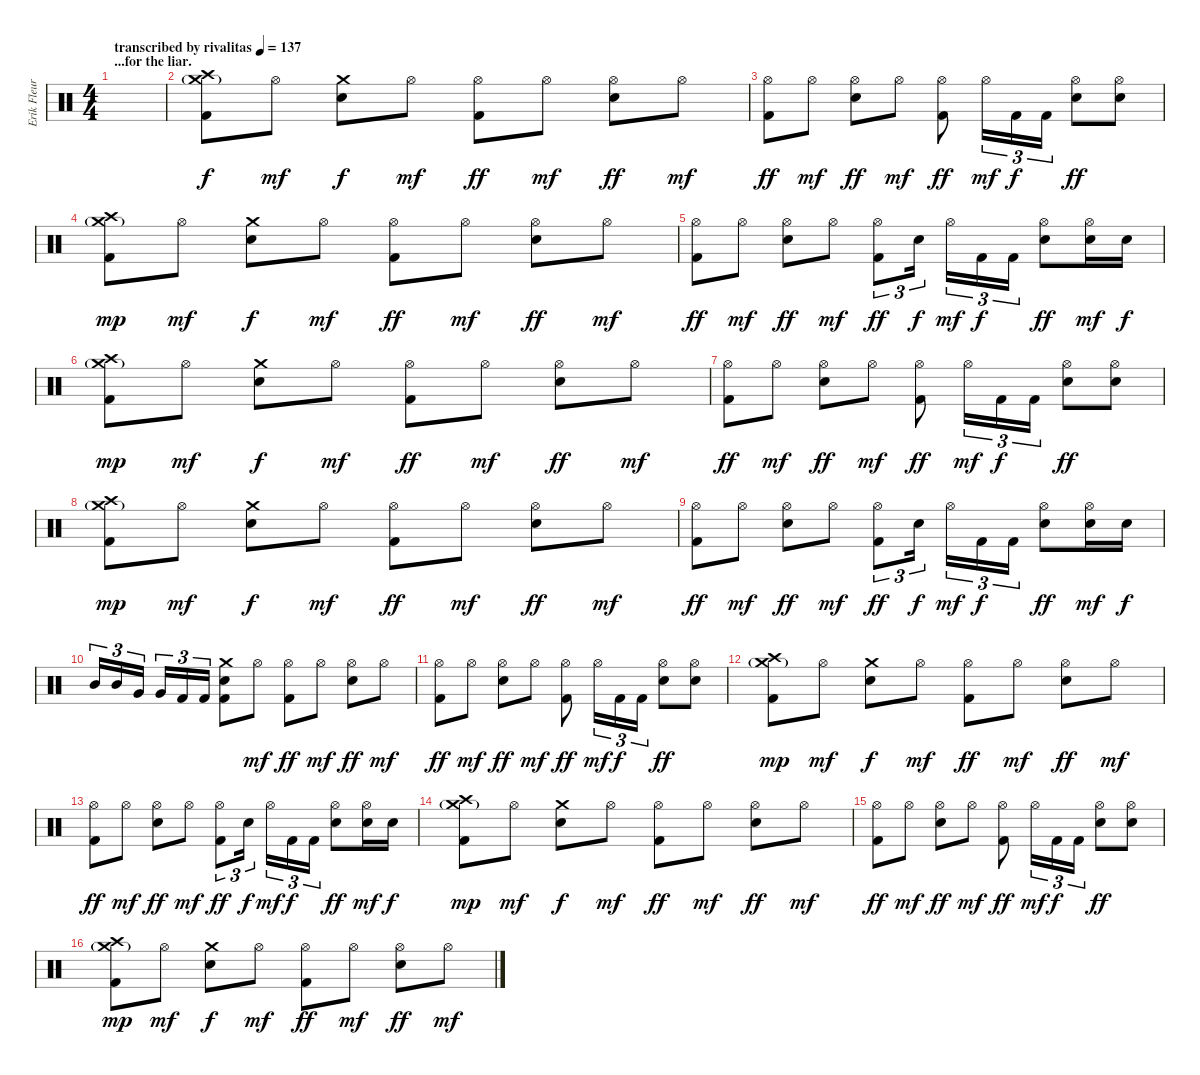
\track ("Erik Fleuren" "Erik Fleur") {instrument percussion}
\staff {score}
\articulation defaults
\ts (4 4)
\section ("" "...for the liar.")
\tempo (137 "transcribed by rivalitas")
\clef neutral
\ks c
|
("Crash high (hit)" "Crash medium (hit)"{g} "Kick (hit) 2").8 "Hi-Hat (open)".8{dy mf} ("Crash medium (hit)" "Electric Snare (hit)").8{dy f} "Hi-Hat (open)".8{dy mf} ("Hi-Hat (open)" "Kick (hit) 2").8{dy ff} "Hi-Hat (open)".8{dy mf} ("Hi-Hat (open)" "Electric Snare (hit)").8{dy ff} "Hi-Hat (open)".8{dy mf} |
("Hi-Hat (open)" "Kick (hit) 2").8{dy ff} "Hi-Hat (open)".8{dy mf} ("Hi-Hat (open)" "Electric Snare (hit)").8{dy ff} "Hi-Hat (open)".8{dy mf} ("Hi-Hat (open)" "Kick (hit) 2").8{dy ff} "Hi-Hat (open)".16{tu (3 2) dy mf} "Kick (hit) 2".16{tu (3 2) dy f} "Kick (hit) 2".16{tu (3 2)} ("Hi-Hat (open)" "Electric Snare (hit)").8{dy ff} ("Hi-Hat (open)" "Electric Snare (hit)").8 |
("Crash high (hit)" "Crash medium (hit)"{g} "Kick (hit) 2").8{dy mp} "Hi-Hat (open)".8{dy mf} ("Crash medium (hit)" "Electric Snare (hit)").8{dy f} "Hi-Hat (open)".8{dy mf} ("Hi-Hat (open)" "Kick (hit) 2").8{dy ff} "Hi-Hat (open)".8{dy mf} ("Hi-Hat (open)" "Electric Snare (hit)").8{dy ff} "Hi-Hat (open)".8{dy mf} |
("Hi-Hat (open)" "Kick (hit) 2").8{dy ff} "Hi-Hat (open)".8{dy mf} ("Hi-Hat (open)" "Electric Snare (hit)").8{dy ff} "Hi-Hat (open)".8{dy mf} ("Hi-Hat (open)" "Kick (hit) 2").8{tu (3 2) dy ff} "Electric Snare (hit)".16{tu (3 2) dy f beam splitsecondary} "Hi-Hat (open)".16{tu (3 2) dy mf} "Kick (hit) 2".16{tu (3 2) dy f} "Kick (hit) 2".16{tu (3 2)} ("Hi-Hat (open)" "Electric Snare (hit)").8{dy ff} ("Hi-Hat (open)" "Electric Snare (hit)").16{dy mf} "Electric Snare (hit)".16{dy f} |
("Crash high (hit)" "Crash medium (hit)"{g} "Kick (hit) 2").8{dy mp} "Hi-Hat (open)".8{dy mf} ("Crash medium (hit)" "Electric Snare (hit)").8{dy f} "Hi-Hat (open)".8{dy mf} ("Hi-Hat (open)" "Kick (hit) 2").8{dy ff} "Hi-Hat (open)".8{dy mf} ("Hi-Hat (open)" "Electric Snare (hit)").8{dy ff} "Hi-Hat (open)".8{dy mf} |
("Hi-Hat (open)" "Kick (hit) 2").8{dy ff} "Hi-Hat (open)".8{dy mf} ("Hi-Hat (open)" "Electric Snare (hit)").8{dy ff} "Hi-Hat (open)".8{dy mf} ("Hi-Hat (open)" "Kick (hit) 2").8{dy ff} "Hi-Hat (open)".16{tu (3 2) dy mf} "Kick (hit) 2".16{tu (3 2) dy f} "Kick (hit) 2".16{tu (3 2)} ("Hi-Hat (open)" "Electric Snare (hit)").8{dy ff} ("Hi-Hat (open)" "Electric Snare (hit)").8 |
("Crash high (hit)" "Crash medium (hit)"{g} "Kick (hit) 2").8{dy mp} "Hi-Hat (open)".8{dy mf} ("Crash medium (hit)" "Electric Snare (hit)").8{dy f} "Hi-Hat (open)".8{dy mf} ("Hi-Hat (open)" "Kick (hit) 2").8{dy ff} "Hi-Hat (open)".8{dy mf} ("Hi-Hat (open)" "Electric Snare (hit)").8{dy ff} "Hi-Hat (open)".8{dy mf} |
("Hi-Hat (open)" "Kick (hit) 2").8{dy ff} "Hi-Hat (open)".8{dy mf} ("Hi-Hat (open)" "Electric Snare (hit)").8{dy ff} "Hi-Hat (open)".8{dy mf} ("Hi-Hat (open)" "Kick (hit) 2").8{tu (3 2) dy ff} "Electric Snare (hit)".16{tu (3 2) dy f beam splitsecondary} "Hi-Hat (open)".16{tu (3 2) dy mf} "Kick (hit) 2".16{tu (3 2) dy f} "Kick (hit) 2".16{tu (3 2)} ("Hi-Hat (open)" "Electric Snare (hit)").8{dy ff} ("Hi-Hat (open)" "Electric Snare (hit)").16{dy mf} "Electric Snare (hit)".16{dy f} |
"Mid Tom (hit)".16{tu (3 2)} "Mid Tom (hit)".16{tu (3 2)} "Very Low Tom (hit)".16{tu (3 2) beam splitsecondary} "Very Low Tom (hit)".16{tu (3 2)} "Kick (hit) 2".16{tu (3 2)} "Kick (hit) 2".16{tu (3 2)} ("Crash medium (hit)" "Electric Snare (hit)" "Kick (hit) 2").8 "Hi-Hat (open)".8{dy mf} ("Hi-Hat (open)" "Kick (hit) 2").8{dy ff} "Hi-Hat (open)".8{dy mf} ("Hi-Hat (open)" "Electric Snare (hit)").8{dy ff} "Hi-Hat (open)".8{dy mf} |
("Hi-Hat (open)" "Kick (hit) 2").8{dy ff} "Hi-Hat (open)".8{dy mf} ("Hi-Hat (open)" "Electric Snare (hit)").8{dy ff} "Hi-Hat (open)".8{dy mf} ("Hi-Hat (open)" "Kick (hit) 2").8{dy ff} "Hi-Hat (open)".16{tu (3 2) dy mf} "Kick (hit) 2".16{tu (3 2) dy f} "Kick (hit) 2".16{tu (3 2)} ("Hi-Hat (open)" "Electric Snare (hit)").8{dy ff} ("Hi-Hat (open)" "Electric Snare (hit)").8 |
("Crash high (hit)" "Crash medium (hit)"{g} "Kick (hit) 2").8{dy mp} "Hi-Hat (open)".8{dy mf} ("Crash medium (hit)" "Electric Snare (hit)").8{dy f} "Hi-Hat (open)".8{dy mf} ("Hi-Hat (open)" "Kick (hit) 2").8{dy ff} "Hi-Hat (open)".8{dy mf} ("Hi-Hat (open)" "Electric Snare (hit)").8{dy ff} "Hi-Hat (open)".8{dy mf} |
("Hi-Hat (open)" "Kick (hit) 2").8{dy ff} "Hi-Hat (open)".8{dy mf} ("Hi-Hat (open)" "Electric Snare (hit)").8{dy ff} "Hi-Hat (open)".8{dy mf} ("Hi-Hat (open)" "Kick (hit) 2").8{tu (3 2) dy ff} "Electric Snare (hit)".16{tu (3 2) dy f beam splitsecondary} "Hi-Hat (open)".16{tu (3 2) dy mf} "Kick (hit) 2".16{tu (3 2) dy f} "Kick (hit) 2".16{tu (3 2)} ("Hi-Hat (open)" "Electric Snare (hit)").8{dy ff} ("Hi-Hat (open)" "Electric Snare (hit)").16{dy mf} "Electric Snare (hit)".16{dy f} |
("Crash high (hit)" "Crash medium (hit)"{g} "Kick (hit) 2").8{dy mp} "Hi-Hat (open)".8{dy mf} ("Crash medium (hit)" "Electric Snare (hit)").8{dy f} "Hi-Hat (open)".8{dy mf} ("Hi-Hat (open)" "Kick (hit) 2").8{dy ff} "Hi-Hat (open)".8{dy mf} ("Hi-Hat (open)" "Electric Snare (hit)").8{dy ff} "Hi-Hat (open)".8{dy mf} |
("Hi-Hat (open)" "Kick (hit) 2").8{dy ff} "Hi-Hat (open)".8{dy mf} ("Hi-Hat (open)" "Electric Snare (hit)").8{dy ff} "Hi-Hat (open)".8{dy mf} ("Hi-Hat (open)" "Kick (hit) 2").8{dy ff} "Hi-Hat (open)".16{tu (3 2) dy mf} "Kick (hit) 2".16{tu (3 2) dy f} "Kick (hit) 2".16{tu (3 2)} ("Hi-Hat (open)" "Electric Snare (hit)").8{dy ff} ("Hi-Hat (open)" "Electric Snare (hit)").8 |
("Crash high (hit)" "Crash medium (hit)"{g} "Kick (hit) 2").8{dy mp} "Hi-Hat (open)".8{dy mf} ("Crash medium (hit)" "Electric Snare (hit)").8{dy f} "Hi-Hat (open)".8{dy mf} ("Hi-Hat (open)" "Kick (hit) 2").8{dy ff} "Hi-Hat (open)".8{dy mf} ("Hi-Hat (open)" "Electric Snare (hit)").8{dy ff} "Hi-Hat (open)".8{dy mf}
